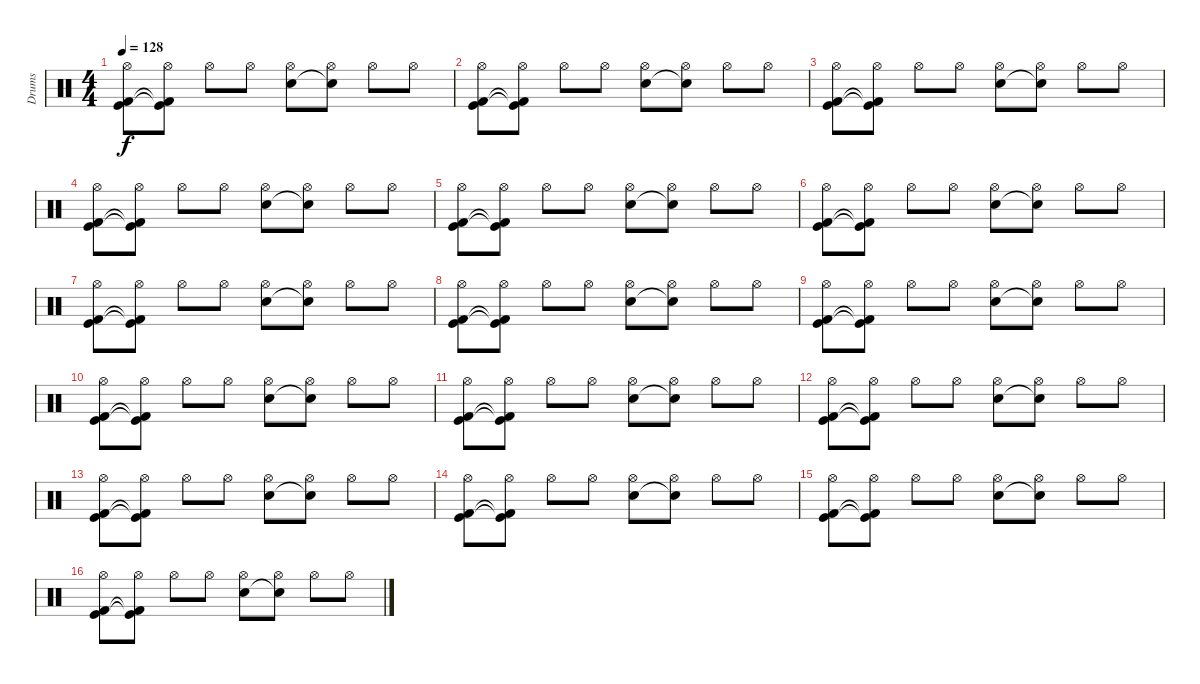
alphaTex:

\track ("Drums" "Drums") {instrument percussion}
\staff {score}
\articulation defaults
\ts (4 4)
\tempo 128
\clef neutral
\ks c
("Hi-Hat (open)" "Kick (hit) 2" "Kick (hit)").8{dy f} ("Hi-Hat (open)" "Kick (hit) 2"{t} "Kick (hit)"{t}).8 "Hi-Hat (open)".8 "Hi-Hat (open)".8 ("Hi-Hat (open)" "Snare (hit) 2").8 ("Hi-Hat (open)" "Snare (hit) 2"{t}).8 "Hi-Hat (open)".8 "Hi-Hat (open)".8 |
("Hi-Hat (open)" "Kick (hit) 2" "Kick (hit)").8 ("Hi-Hat (open)" "Kick (hit) 2"{t} "Kick (hit)"{t}).8 "Hi-Hat (open)".8 "Hi-Hat (open)".8 ("Hi-Hat (open)" "Snare (hit) 2").8 ("Hi-Hat (open)" "Snare (hit) 2"{t}).8 "Hi-Hat (open)".8 "Hi-Hat (open)".8 |
("Hi-Hat (open)" "Kick (hit) 2" "Kick (hit)").8 ("Hi-Hat (open)" "Kick (hit) 2"{t} "Kick (hit)"{t}).8 "Hi-Hat (open)".8 "Hi-Hat (open)".8 ("Hi-Hat (open)" "Snare (hit) 2").8 ("Hi-Hat (open)" "Snare (hit) 2"{t}).8 "Hi-Hat (open)".8 "Hi-Hat (open)".8 |
("Hi-Hat (open)" "Kick (hit) 2" "Kick (hit)").8 ("Hi-Hat (open)" "Kick (hit) 2"{t} "Kick (hit)"{t}).8 "Hi-Hat (open)".8 "Hi-Hat (open)".8 ("Hi-Hat (open)" "Snare (hit) 2").8 ("Hi-Hat (open)" "Snare (hit) 2"{t}).8 "Hi-Hat (open)".8 "Hi-Hat (open)".8 |
("Hi-Hat (open)" "Kick (hit) 2" "Kick (hit)").8 ("Hi-Hat (open)" "Kick (hit) 2"{t} "Kick (hit)"{t}).8 "Hi-Hat (open)".8 "Hi-Hat (open)".8 ("Hi-Hat (open)" "Snare (hit) 2").8 ("Hi-Hat (open)" "Snare (hit) 2"{t}).8 "Hi-Hat (open)".8 "Hi-Hat (open)".8 |
("Hi-Hat (open)" "Kick (hit) 2" "Kick (hit)").8 ("Hi-Hat (open)" "Kick (hit) 2"{t} "Kick (hit)"{t}).8 "Hi-Hat (open)".8 "Hi-Hat (open)".8 ("Hi-Hat (open)" "Snare (hit) 2").8 ("Hi-Hat (open)" "Snare (hit) 2"{t}).8 "Hi-Hat (open)".8 "Hi-Hat (open)".8 |
("Hi-Hat (open)" "Kick (hit) 2" "Kick (hit)").8 ("Hi-Hat (open)" "Kick (hit) 2"{t} "Kick (hit)"{t}).8 "Hi-Hat (open)".8 "Hi-Hat (open)".8 ("Hi-Hat (open)" "Snare (hit) 2").8 ("Hi-Hat (open)" "Snare (hit) 2"{t}).8 "Hi-Hat (open)".8 "Hi-Hat (open)".8 |
("Hi-Hat (open)" "Kick (hit) 2" "Kick (hit)").8 ("Hi-Hat (open)" "Kick (hit) 2"{t} "Kick (hit)"{t}).8 "Hi-Hat (open)".8 "Hi-Hat (open)".8 ("Hi-Hat (open)" "Snare (hit) 2").8 ("Hi-Hat (open)" "Snare (hit) 2"{t}).8 "Hi-Hat (open)".8 "Hi-Hat (open)".8 |
("Hi-Hat (open)" "Kick (hit) 2" "Kick (hit)").8 ("Hi-Hat (open)" "Kick (hit) 2"{t} "Kick (hit)"{t}).8 "Hi-Hat (open)".8 "Hi-Hat (open)".8 ("Hi-Hat (open)" "Snare (hit) 2").8 ("Hi-Hat (open)" "Snare (hit) 2"{t}).8 "Hi-Hat (open)".8 "Hi-Hat (open)".8 |
("Hi-Hat (open)" "Kick (hit) 2" "Kick (hit)").8 ("Hi-Hat (open)" "Kick (hit) 2"{t} "Kick (hit)"{t}).8 "Hi-Hat (open)".8 "Hi-Hat (open)".8 ("Hi-Hat (open)" "Snare (hit) 2").8 ("Hi-Hat (open)" "Snare (hit) 2"{t}).8 "Hi-Hat (open)".8 "Hi-Hat (open)".8 |
("Hi-Hat (open)" "Kick (hit) 2" "Kick (hit)").8 ("Hi-Hat (open)" "Kick (hit) 2"{t} "Kick (hit)"{t}).8 "Hi-Hat (open)".8 "Hi-Hat (open)".8 ("Hi-Hat (open)" "Snare (hit) 2").8 ("Hi-Hat (open)" "Snare (hit) 2"{t}).8 "Hi-Hat (open)".8 "Hi-Hat (open)".8 |
("Hi-Hat (open)" "Kick (hit) 2" "Kick (hit)").8 ("Hi-Hat (open)" "Kick (hit) 2"{t} "Kick (hit)"{t}).8 "Hi-Hat (open)".8 "Hi-Hat (open)".8 ("Hi-Hat (open)" "Snare (hit) 2").8 ("Hi-Hat (open)" "Snare (hit) 2"{t}).8 "Hi-Hat (open)".8 "Hi-Hat (open)".8 |
("Hi-Hat (open)" "Kick (hit) 2" "Kick (hit)").8 ("Hi-Hat (open)" "Kick (hit) 2"{t} "Kick (hit)"{t}).8 "Hi-Hat (open)".8 "Hi-Hat (open)".8 ("Hi-Hat (open)" "Snare (hit) 2").8 ("Hi-Hat (open)" "Snare (hit) 2"{t}).8 "Hi-Hat (open)".8 "Hi-Hat (open)".8 |
("Hi-Hat (open)" "Kick (hit) 2" "Kick (hit)").8 ("Hi-Hat (open)" "Kick (hit) 2"{t} "Kick (hit)"{t}).8 "Hi-Hat (open)".8 "Hi-Hat (open)".8 ("Hi-Hat (open)" "Snare (hit) 2").8 ("Hi-Hat (open)" "Snare (hit) 2"{t}).8 "Hi-Hat (open)".8 "Hi-Hat (open)".8 |
("Hi-Hat (open)" "Kick (hit) 2" "Kick (hit)").8 ("Hi-Hat (open)" "Kick (hit) 2"{t} "Kick (hit)"{t}).8 "Hi-Hat (open)".8 "Hi-Hat (open)".8 ("Hi-Hat (open)" "Snare (hit) 2").8 ("Hi-Hat (open)" "Snare (hit) 2"{t}).8 "Hi-Hat (open)".8 "Hi-Hat (open)".8 |
("Hi-Hat (open)" "Kick (hit) 2" "Kick (hit)").8 ("Hi-Hat (open)" "Kick (hit) 2"{t} "Kick (hit)"{t}).8 "Hi-Hat (open)".8 "Hi-Hat (open)".8 ("Hi-Hat (open)" "Snare (hit) 2").8 ("Hi-Hat (open)" "Snare (hit) 2"{t}).8 "Hi-Hat (open)".8 "Hi-Hat (open)".8
